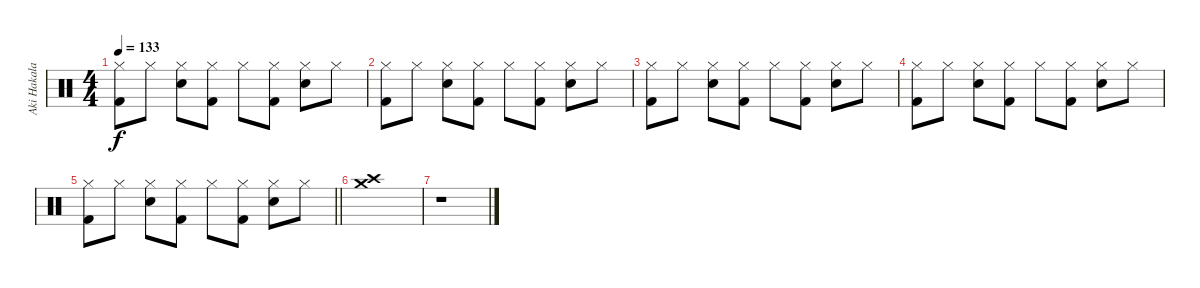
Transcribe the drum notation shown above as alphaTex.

\track ("Aki Hakala - Drums" "Aki Hakala") {instrument percussion}
\staff {score}
\articulation defaults
\ts (4 4)
\tempo 133
\clef neutral
\ks c
("Hi-Hat (closed)" "Kick (hit) 2").8{dy f} "Hi-Hat (closed)".8 ("Snare (hit) 2" "Hi-Hat (closed)").8 ("Hi-Hat (closed)" "Kick (hit) 2").8 "Hi-Hat (closed)".8 ("Hi-Hat (closed)" "Kick (hit) 2").8 ("Snare (hit) 2" "Hi-Hat (closed)").8 "Hi-Hat (closed)".8 |
("Hi-Hat (closed)" "Kick (hit) 2").8 "Hi-Hat (closed)".8 ("Snare (hit) 2" "Hi-Hat (closed)").8 ("Hi-Hat (closed)" "Kick (hit) 2").8 "Hi-Hat (closed)".8 ("Hi-Hat (closed)" "Kick (hit) 2").8 ("Snare (hit) 2" "Hi-Hat (closed)").8 "Hi-Hat (closed)".8 |
("Hi-Hat (closed)" "Kick (hit) 2").8 "Hi-Hat (closed)".8 ("Snare (hit) 2" "Hi-Hat (closed)").8 ("Hi-Hat (closed)" "Kick (hit) 2").8 "Hi-Hat (closed)".8 ("Hi-Hat (closed)" "Kick (hit) 2").8 ("Snare (hit) 2" "Hi-Hat (closed)").8 "Hi-Hat (closed)".8 |
("Hi-Hat (closed)" "Kick (hit) 2").8 "Hi-Hat (closed)".8 ("Snare (hit) 2" "Hi-Hat (closed)").8 ("Hi-Hat (closed)" "Kick (hit) 2").8 "Hi-Hat (closed)".8 ("Hi-Hat (closed)" "Kick (hit) 2").8 ("Snare (hit) 2" "Hi-Hat (closed)").8 "Hi-Hat (closed)".8 |
\barLineRight lightlight
("Hi-Hat (closed)" "Kick (hit) 2").8 "Hi-Hat (closed)".8 ("Snare (hit) 2" "Hi-Hat (closed)").8 ("Hi-Hat (closed)" "Kick (hit) 2").8 "Hi-Hat (closed)".8 ("Hi-Hat (closed)" "Kick (hit) 2").8 ("Snare (hit) 2" "Hi-Hat (closed)").8 "Hi-Hat (closed)".8 |
("Crash high (hit)" "Crash medium (hit)").1 |
r.1
